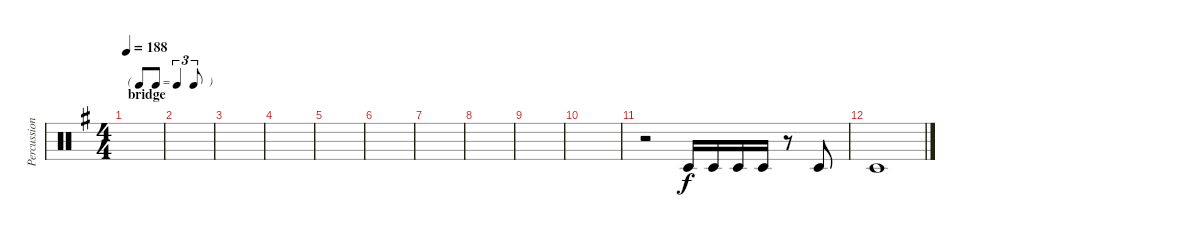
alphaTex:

\track ("Percussion" "Percussion") {instrument percussion}
\staff {score}
\articulation defaults
\ts (4 4)
\tf triplet8th
\section ("" "bridge")
\tempo 188
\clef neutral
\ks g
|
|
|
|
|
|
|
|
|
|
r.2 "Timbale low (hit)".16 "Timbale low (hit)".16 "Timbale low (hit)".16 "Timbale low (hit)".16 r.8 "Timbale low (hit)".8 |
"Timbale low (hit)".1
